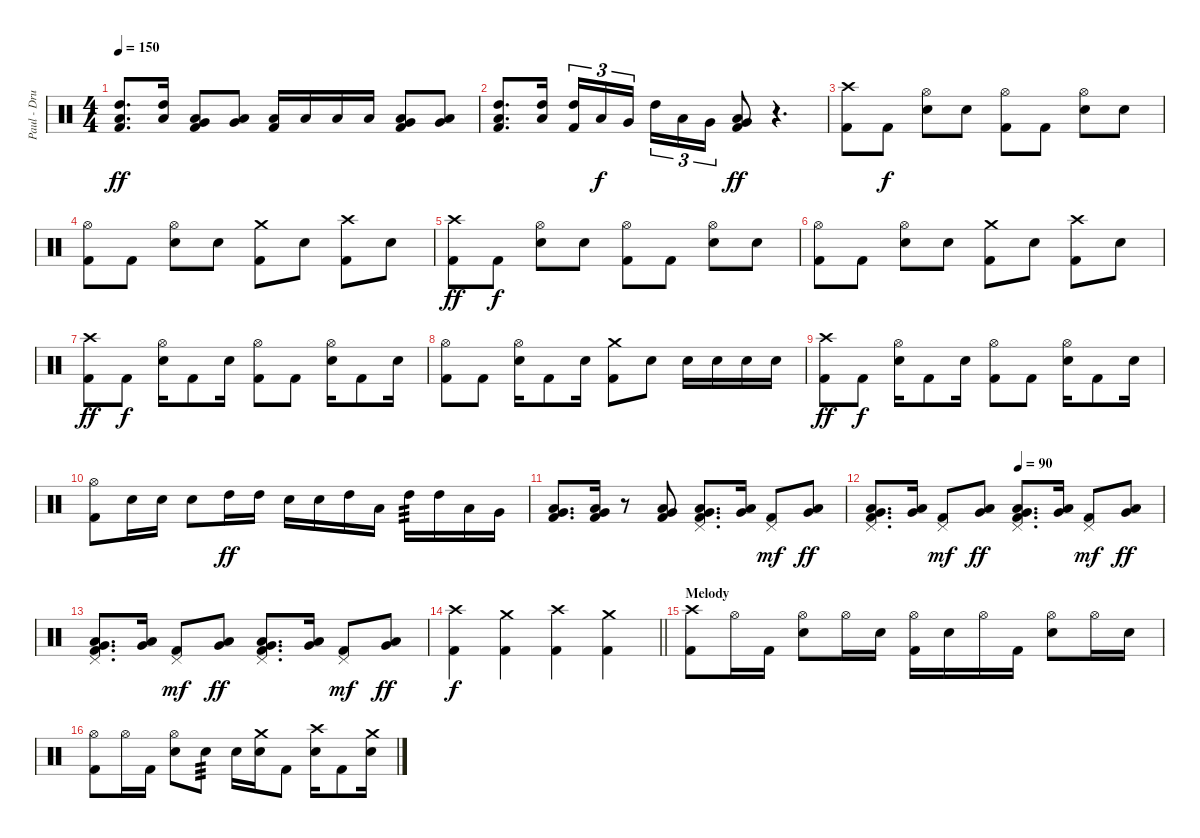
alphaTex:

\track ("Paul - Drums" "Paul - Dru") {instrument percussion}
\staff {score}
\articulation defaults
\ts (4 4)
\tempo 150
\clef neutral
\ks c
("High Tom (hit)" "Low Tom (hit)" "Kick (hit) 2").8{d dy ff} ("High Tom (hit)" "Low Tom (hit)").16 ("Very Low Tom (hit)" "Low Tom (hit)" "Kick (hit) 2").8 ("Low Floor Tom (hit)" "Very Low Tom (hit)").8 ("Low Tom (hit)" "Kick (hit) 2").16 "Low Tom (hit)".16 "Low Tom (hit)".16 "Low Tom (hit)".16 ("Very Low Tom (hit)" "Low Tom (hit)" "Kick (hit) 2").8 ("Low Floor Tom (hit)" "Very Low Tom (hit)").8 |
("High Tom (hit)" "Low Tom (hit)" "Kick (hit) 2").8{d} ("High Tom (hit)" "Low Tom (hit)").16 ("High Tom (hit)" "Kick (hit) 2").16{tu (3 2)} "Low Tom (hit)".16{tu (3 2) dy f} "Very Low Tom (hit)".16{tu (3 2) beam splitsecondary} "High Tom (hit)".16{tu (3 2)} "Low Tom (hit)".16{tu (3 2)} "Very Low Tom (hit)".16{tu (3 2)} ("Low Floor Tom (hit)" "Very Low Tom (hit)" "Kick (hit) 2").8{dy ff} r.4{d} |
("Crash high (hit)" "Kick (hit) 2").8{volume 12} "Kick (hit) 2".8{dy f} ("Hi-Hat (open)" "Electric Snare (hit)").8 "Electric Snare (hit)".8 ("Hi-Hat (open)" "Kick (hit) 2").8 "Kick (hit) 2".8 ("Hi-Hat (open)" "Electric Snare (hit)").8 "Electric Snare (hit)".8 |
("Hi-Hat (open)" "Kick (hit) 2").8 "Kick (hit) 2".8 ("Hi-Hat (open)" "Electric Snare (hit)").8 "Electric Snare (hit)".8 ("Crash medium (hit)" "Kick (hit) 2").8 "Electric Snare (hit)".8 ("Crash high (hit)" "Kick (hit) 2").8 "Electric Snare (hit)".8 |
("Crash high (hit)" "Kick (hit) 2").8{dy ff} "Kick (hit) 2".8{dy f} ("Hi-Hat (open)" "Electric Snare (hit)").8 "Electric Snare (hit)".8 ("Hi-Hat (open)" "Kick (hit) 2").8 "Kick (hit) 2".8 ("Hi-Hat (open)" "Electric Snare (hit)").8 "Electric Snare (hit)".8 |
("Hi-Hat (open)" "Kick (hit) 2").8 "Kick (hit) 2".8 ("Hi-Hat (open)" "Electric Snare (hit)").8 "Electric Snare (hit)".8 ("Crash medium (hit)" "Kick (hit) 2").8 "Electric Snare (hit)".8 ("Crash high (hit)" "Kick (hit) 2").8 "Electric Snare (hit)".8 |
("Crash high (hit)" "Kick (hit) 2").8{dy ff} "Kick (hit) 2".8{dy f} ("Hi-Hat (open)" "Electric Snare (hit)").16 "Kick (hit) 2".8 "Electric Snare (hit)".16 ("Hi-Hat (open)" "Kick (hit) 2").8 "Kick (hit) 2".8 ("Hi-Hat (open)" "Electric Snare (hit)").16 "Kick (hit) 2".8 "Electric Snare (hit)".16 |
("Hi-Hat (open)" "Kick (hit) 2").8 "Kick (hit) 2".8 ("Hi-Hat (open)" "Electric Snare (hit)").16 "Kick (hit) 2".8 "Electric Snare (hit)".16 ("Crash medium (hit)" "Kick (hit) 2").8 "Electric Snare (hit)".8 "Electric Snare (hit)".16 "Electric Snare (hit)".16 "Electric Snare (hit)".16 "Electric Snare (hit)".16 |
("Crash high (hit)" "Kick (hit) 2").8{dy ff} "Kick (hit) 2".8{dy f} ("Hi-Hat (open)" "Electric Snare (hit)").16 "Kick (hit) 2".8 "Electric Snare (hit)".16 ("Hi-Hat (open)" "Kick (hit) 2").8 "Kick (hit) 2".8 ("Hi-Hat (open)" "Electric Snare (hit)").16 "Kick (hit) 2".8 "Electric Snare (hit)".16 |
("Hi-Hat (open)" "Kick (hit) 2").8 "Electric Snare (hit)".16 "Electric Snare (hit)".16 "Electric Snare (hit)".8 "High Tom (hit)".16{dy ff} "High Tom (hit)".16 "Electric Snare (hit)".16 "Electric Snare (hit)".16 "High Tom (hit)".16 "Low Tom (hit)".16 "High Tom (hit)".16{tp 3} "High Tom (hit)".16 "Low Tom (hit)".16 "Very Low Tom (hit)".16 |
("Low Floor Tom (hit)" "Very Low Tom (hit)" "Kick (hit) 2").8{d} ("Low Floor Tom (hit)" "Very Low Tom (hit)" "Kick (hit) 2").16 r.8 ("Low Floor Tom (hit)" "Very Low Tom (hit)" "Kick (hit) 2").8 ("Pedal Hi-Hat (hit)" "Low Floor Tom (hit)" "Very Low Tom (hit)" "Kick (hit) 2").8{d} ("Low Floor Tom (hit)" "Very Low Tom (hit)").16 ("Pedal Hi-Hat (hit)" "Kick (hit) 2").8{dy mf} ("Low Floor Tom (hit)" "Very Low Tom (hit)").8{dy ff} |
\tempo (90 0.5)
("Pedal Hi-Hat (hit)" "Low Floor Tom (hit)" "Very Low Tom (hit)" "Kick (hit) 2").8{d} ("Low Floor Tom (hit)" "Very Low Tom (hit)").16 ("Pedal Hi-Hat (hit)" "Kick (hit) 2").8{dy mf} ("Low Floor Tom (hit)" "Very Low Tom (hit)").8{dy ff} ("Pedal Hi-Hat (hit)" "Low Floor Tom (hit)" "Very Low Tom (hit)" "Kick (hit) 2").8{d} ("Low Floor Tom (hit)" "Very Low Tom (hit)").16 ("Pedal Hi-Hat (hit)" "Kick (hit) 2").8{dy mf} ("Low Floor Tom (hit)" "Very Low Tom (hit)").8{dy ff} |
("Pedal Hi-Hat (hit)" "Low Floor Tom (hit)" "Very Low Tom (hit)" "Kick (hit) 2").8{d} ("Low Floor Tom (hit)" "Very Low Tom (hit)").16 ("Pedal Hi-Hat (hit)" "Kick (hit) 2").8{dy mf} ("Low Floor Tom (hit)" "Very Low Tom (hit)").8{dy ff} ("Pedal Hi-Hat (hit)" "Low Floor Tom (hit)" "Very Low Tom (hit)" "Kick (hit) 2").8{d} ("Low Floor Tom (hit)" "Very Low Tom (hit)").16 ("Pedal Hi-Hat (hit)" "Kick (hit) 2").8{dy mf} ("Low Floor Tom (hit)" "Very Low Tom (hit)").8{dy ff} |
\barLineRight lightlight
("Crash high (hit)" "Kick (hit) 2").4{dy f} ("Crash medium (hit)" "Kick (hit) 2").4 ("Crash high (hit)" "Kick (hit) 2").4 ("Crash medium (hit)" "Kick (hit) 2").4 |
\section ("" "Melody")
("Crash high (hit)" "Kick (hit) 2").8 "Hi-Hat (open)".16 "Kick (hit) 2".16 ("Hi-Hat (open)" "Electric Snare (hit)").8 "Hi-Hat (open)".16 "Electric Snare (hit)".16 ("Hi-Hat (open)" "Kick (hit) 2").16 "Electric Snare (hit)".16 "Hi-Hat (open)".16 "Kick (hit) 2".16 ("Hi-Hat (open)" "Electric Snare (hit)").8 "Hi-Hat (open)".16 "Electric Snare (hit)".16 |
("Hi-Hat (open)" "Kick (hit) 2").8 "Hi-Hat (open)".16 "Kick (hit) 2".16 ("Hi-Hat (open)" "Electric Snare (hit)").8 "Electric Snare (hit)".8{tp 3} "Electric Snare (hit)".16 ("Crash medium (hit)" "Electric Snare (hit)").16 "Kick (hit) 2".8 ("Crash high (hit)" "Electric Snare (hit)").16 "Kick (hit) 2".8 ("Crash medium (hit)" "Electric Snare (hit)").16
